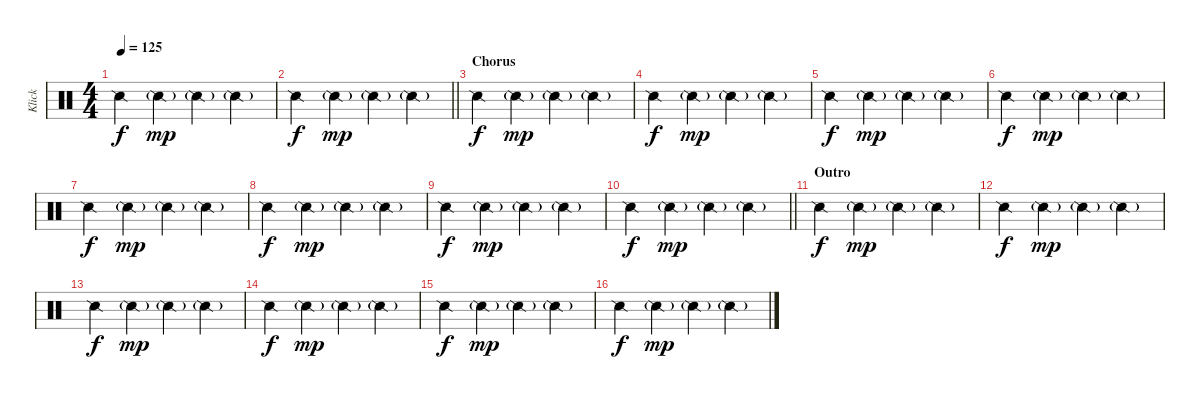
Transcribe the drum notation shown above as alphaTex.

\track ("Klick" "Klick") {instrument percussion}
\staff {score}
\articulation defaults
\ts (4 4)
\tempo 125
\clef neutral
\ks c "Snare (side stick) 2".4{dy f} "Snare (side stick) 2"{g}.4{dy mp} "Snare (side stick) 2"{g}.4 "Snare (side stick) 2"{g}.4
|
\barLineRight lightlight "Snare (side stick) 2".4{dy f} "Snare (side stick) 2"{g}.4{dy mp} "Snare (side stick) 2"{g}.4 "Snare (side stick) 2"{g}.4
|
\section ("" "Chorus")
"Snare (side stick) 2".4{dy f} "Snare (side stick) 2"{g}.4{dy mp} "Snare (side stick) 2"{g}.4 "Snare (side stick) 2"{g}.4 |
"Snare (side stick) 2".4{dy f} "Snare (side stick) 2"{g}.4{dy mp} "Snare (side stick) 2"{g}.4 "Snare (side stick) 2"{g}.4 |
"Snare (side stick) 2".4{dy f} "Snare (side stick) 2"{g}.4{dy mp} "Snare (side stick) 2"{g}.4 "Snare (side stick) 2"{g}.4 |
"Snare (side stick) 2".4{dy f} "Snare (side stick) 2"{g}.4{dy mp} "Snare (side stick) 2"{g}.4 "Snare (side stick) 2"{g}.4 |
"Snare (side stick) 2".4{dy f} "Snare (side stick) 2"{g}.4{dy mp} "Snare (side stick) 2"{g}.4 "Snare (side stick) 2"{g}.4 |
"Snare (side stick) 2".4{dy f} "Snare (side stick) 2"{g}.4{dy mp} "Snare (side stick) 2"{g}.4 "Snare (side stick) 2"{g}.4 |
"Snare (side stick) 2".4{dy f} "Snare (side stick) 2"{g}.4{dy mp} "Snare (side stick) 2"{g}.4 "Snare (side stick) 2"{g}.4 |
\barLineRight lightlight "Snare (side stick) 2".4{dy f} "Snare (side stick) 2"{g}.4{dy mp} "Snare (side stick) 2"{g}.4 "Snare (side stick) 2"{g}.4
|
\section ("" "Outro")
"Snare (side stick) 2".4{dy f} "Snare (side stick) 2"{g}.4{dy mp} "Snare (side stick) 2"{g}.4 "Snare (side stick) 2"{g}.4 |
"Snare (side stick) 2".4{dy f} "Snare (side stick) 2"{g}.4{dy mp} "Snare (side stick) 2"{g}.4 "Snare (side stick) 2"{g}.4 |
"Snare (side stick) 2".4{dy f} "Snare (side stick) 2"{g}.4{dy mp} "Snare (side stick) 2"{g}.4 "Snare (side stick) 2"{g}.4 |
"Snare (side stick) 2".4{dy f} "Snare (side stick) 2"{g}.4{dy mp} "Snare (side stick) 2"{g}.4 "Snare (side stick) 2"{g}.4 |
"Snare (side stick) 2".4{dy f} "Snare (side stick) 2"{g}.4{dy mp} "Snare (side stick) 2"{g}.4 "Snare (side stick) 2"{g}.4 |
"Snare (side stick) 2".4{dy f} "Snare (side stick) 2"{g}.4{dy mp} "Snare (side stick) 2"{g}.4 "Snare (side stick) 2"{g}.4
